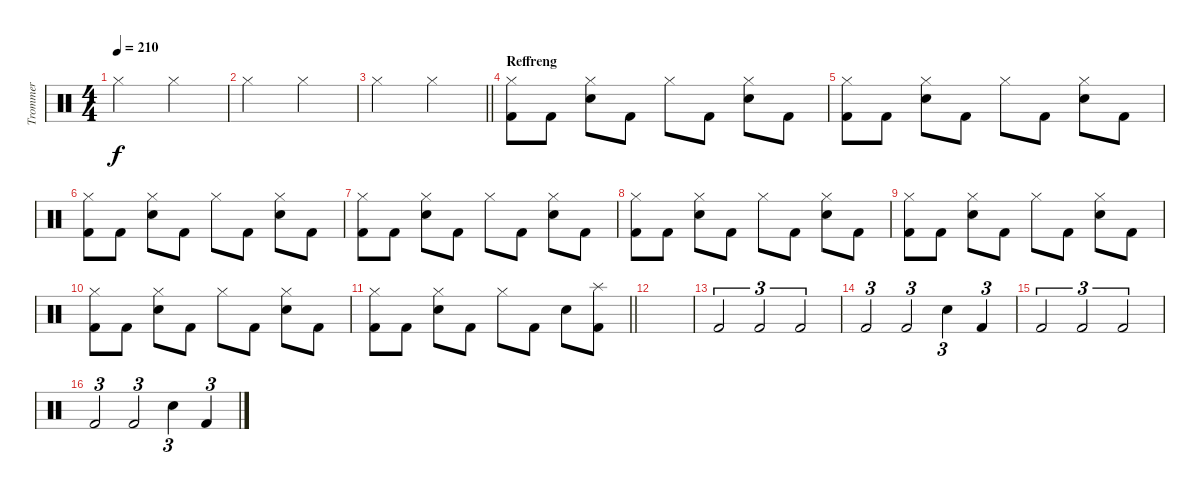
\track ("Trommer" "Trommer") {instrument percussion}
\staff {score}
\articulation defaults
\ts (4 4)
\tempo 210
\clef neutral
\ks c "Hi-Hat (closed)".2{dy f} "Hi-Hat (closed)".2
|
"Hi-Hat (closed)".2 "Hi-Hat (closed)".2 |
\barLineRight lightlight "Hi-Hat (closed)".2 "Hi-Hat (closed)".2
|
\section ("" "Reffreng")
("Hi-Hat (closed)" "Kick (hit) 2").8 "Kick (hit) 2".8 ("Hi-Hat (closed)" "Snare (hit) 2").8 "Kick (hit) 2".8 "Hi-Hat (closed)".8 "Kick (hit) 2".8 ("Hi-Hat (closed)" "Snare (hit) 2").8 "Kick (hit) 2".8 |
("Hi-Hat (closed)" "Kick (hit) 2").8 "Kick (hit) 2".8 ("Hi-Hat (closed)" "Snare (hit) 2").8 "Kick (hit) 2".8 "Hi-Hat (closed)".8 "Kick (hit) 2".8 ("Hi-Hat (closed)" "Snare (hit) 2").8 "Kick (hit) 2".8 |
("Hi-Hat (closed)" "Kick (hit) 2").8 "Kick (hit) 2".8 ("Hi-Hat (closed)" "Snare (hit) 2").8 "Kick (hit) 2".8 "Hi-Hat (closed)".8 "Kick (hit) 2".8 ("Hi-Hat (closed)" "Snare (hit) 2").8 "Kick (hit) 2".8 |
("Hi-Hat (closed)" "Kick (hit) 2").8 "Kick (hit) 2".8 ("Hi-Hat (closed)" "Snare (hit) 2").8 "Kick (hit) 2".8 "Hi-Hat (closed)".8 "Kick (hit) 2".8 ("Hi-Hat (closed)" "Snare (hit) 2").8 "Kick (hit) 2".8 |
("Hi-Hat (closed)" "Kick (hit) 2").8 "Kick (hit) 2".8 ("Hi-Hat (closed)" "Snare (hit) 2").8 "Kick (hit) 2".8 "Hi-Hat (closed)".8 "Kick (hit) 2".8 ("Hi-Hat (closed)" "Snare (hit) 2").8 "Kick (hit) 2".8 |
("Hi-Hat (closed)" "Kick (hit) 2").8 "Kick (hit) 2".8 ("Hi-Hat (closed)" "Snare (hit) 2").8 "Kick (hit) 2".8 "Hi-Hat (closed)".8 "Kick (hit) 2".8 ("Hi-Hat (closed)" "Snare (hit) 2").8 "Kick (hit) 2".8 |
("Hi-Hat (closed)" "Kick (hit) 2").8 "Kick (hit) 2".8 ("Hi-Hat (closed)" "Snare (hit) 2").8 "Kick (hit) 2".8 "Hi-Hat (closed)".8 "Kick (hit) 2".8 ("Hi-Hat (closed)" "Snare (hit) 2").8 "Kick (hit) 2".8 |
\barLineRight lightlight
("Hi-Hat (closed)" "Kick (hit) 2").8 "Kick (hit) 2".8 ("Hi-Hat (closed)" "Snare (hit) 2").8 "Kick (hit) 2".8 "Hi-Hat (closed)".8 "Kick (hit) 2".8 "Snare (hit) 2".8 ("Splash (hit)" "Kick (hit) 2").8 |
|
"Kick (hit) 2".2{tu (3 2)} "Kick (hit) 2".2{tu (3 2)} "Kick (hit) 2".2{tu (3 2)} |
"Kick (hit) 2".2{tu (3 2)} "Kick (hit) 2".2{tu (3 2)} "Snare (hit) 2".4{tu (3 2)} "Kick (hit) 2".4{tu (3 2)} |
"Kick (hit) 2".2{tu (3 2)} "Kick (hit) 2".2{tu (3 2)} "Kick (hit) 2".2{tu (3 2)} |
"Kick (hit) 2".2{tu (3 2)} "Kick (hit) 2".2{tu (3 2)} "Snare (hit) 2".4{tu (3 2)} "Kick (hit) 2".4{tu (3 2)}
